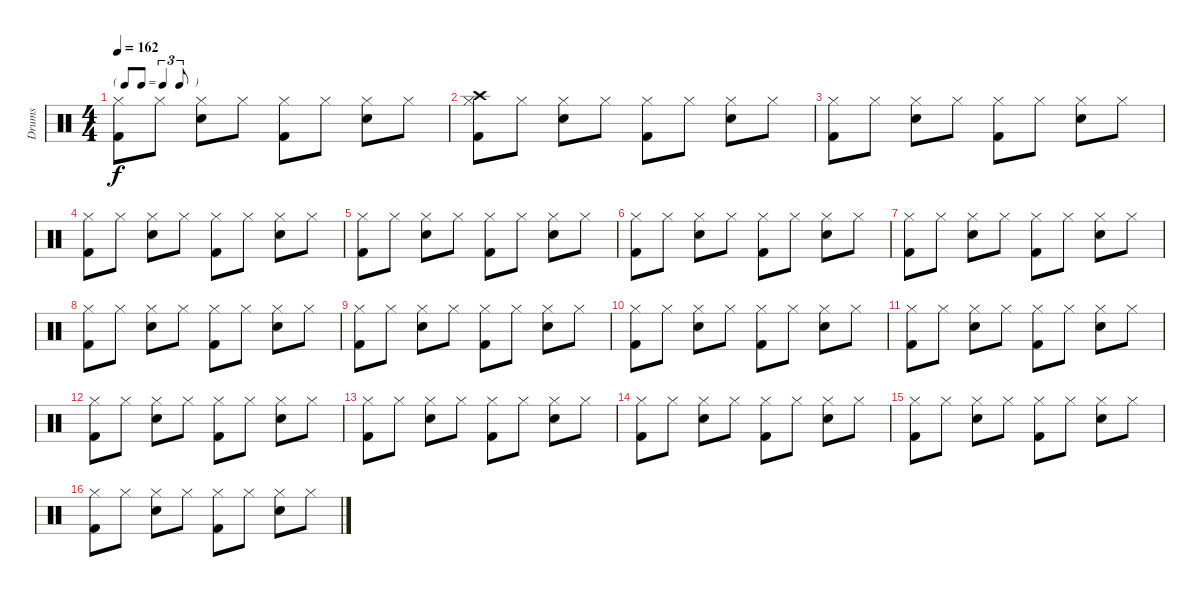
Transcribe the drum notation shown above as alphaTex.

\track ("Drums" "Drums") {instrument percussion}
\staff {score}
\articulation defaults
\ts (4 4)
\tf triplet8th
\tempo 162
\clef neutral
\ks c
("Hi-Hat (closed)" "Kick (hit) 2").8{dy f} "Hi-Hat (closed)".8 ("Hi-Hat (closed)" "Snare (hit) 2").8 "Hi-Hat (closed)".8 ("Hi-Hat (closed)" "Kick (hit) 2").8 "Hi-Hat (closed)".8 ("Hi-Hat (closed)" "Snare (hit) 2").8 "Hi-Hat (closed)".8 |
("Hi-Hat (closed)" "Kick (hit) 2" "Crash high (hit)").8 "Hi-Hat (closed)".8 ("Hi-Hat (closed)" "Snare (hit) 2").8 "Hi-Hat (closed)".8 ("Hi-Hat (closed)" "Kick (hit) 2").8 "Hi-Hat (closed)".8 ("Hi-Hat (closed)" "Snare (hit) 2").8 "Hi-Hat (closed)".8 |
("Hi-Hat (closed)" "Kick (hit) 2").8 "Hi-Hat (closed)".8 ("Hi-Hat (closed)" "Snare (hit) 2").8 "Hi-Hat (closed)".8 ("Hi-Hat (closed)" "Kick (hit) 2").8 "Hi-Hat (closed)".8 ("Hi-Hat (closed)" "Snare (hit) 2").8 "Hi-Hat (closed)".8 |
("Hi-Hat (closed)" "Kick (hit) 2").8 "Hi-Hat (closed)".8 ("Hi-Hat (closed)" "Snare (hit) 2").8 "Hi-Hat (closed)".8 ("Hi-Hat (closed)" "Kick (hit) 2").8 "Hi-Hat (closed)".8 ("Hi-Hat (closed)" "Snare (hit) 2").8 "Hi-Hat (closed)".8 |
("Hi-Hat (closed)" "Kick (hit) 2").8 "Hi-Hat (closed)".8 ("Hi-Hat (closed)" "Snare (hit) 2").8 "Hi-Hat (closed)".8 ("Hi-Hat (closed)" "Kick (hit) 2").8 "Hi-Hat (closed)".8 ("Hi-Hat (closed)" "Snare (hit) 2").8 "Hi-Hat (closed)".8 |
("Hi-Hat (closed)" "Kick (hit) 2").8 "Hi-Hat (closed)".8 ("Hi-Hat (closed)" "Snare (hit) 2").8 "Hi-Hat (closed)".8 ("Hi-Hat (closed)" "Kick (hit) 2").8 "Hi-Hat (closed)".8 ("Hi-Hat (closed)" "Snare (hit) 2").8 "Hi-Hat (closed)".8 |
("Hi-Hat (closed)" "Kick (hit) 2").8 "Hi-Hat (closed)".8 ("Hi-Hat (closed)" "Snare (hit) 2").8 "Hi-Hat (closed)".8 ("Hi-Hat (closed)" "Kick (hit) 2").8 "Hi-Hat (closed)".8 ("Hi-Hat (closed)" "Snare (hit) 2").8 "Hi-Hat (closed)".8 |
("Hi-Hat (closed)" "Kick (hit) 2").8 "Hi-Hat (closed)".8 ("Hi-Hat (closed)" "Snare (hit) 2").8 "Hi-Hat (closed)".8 ("Hi-Hat (closed)" "Kick (hit) 2").8 "Hi-Hat (closed)".8 ("Hi-Hat (closed)" "Snare (hit) 2").8 "Hi-Hat (closed)".8 |
("Hi-Hat (closed)" "Kick (hit) 2").8 "Hi-Hat (closed)".8 ("Hi-Hat (closed)" "Snare (hit) 2").8 "Hi-Hat (closed)".8 ("Hi-Hat (closed)" "Kick (hit) 2").8 "Hi-Hat (closed)".8 ("Hi-Hat (closed)" "Snare (hit) 2").8 "Hi-Hat (closed)".8 |
("Hi-Hat (closed)" "Kick (hit) 2").8 "Hi-Hat (closed)".8 ("Hi-Hat (closed)" "Snare (hit) 2").8 "Hi-Hat (closed)".8 ("Hi-Hat (closed)" "Kick (hit) 2").8 "Hi-Hat (closed)".8 ("Hi-Hat (closed)" "Snare (hit) 2").8 "Hi-Hat (closed)".8 |
("Hi-Hat (closed)" "Kick (hit) 2").8 "Hi-Hat (closed)".8 ("Hi-Hat (closed)" "Snare (hit) 2").8 "Hi-Hat (closed)".8 ("Hi-Hat (closed)" "Kick (hit) 2").8 "Hi-Hat (closed)".8 ("Hi-Hat (closed)" "Snare (hit) 2").8 "Hi-Hat (closed)".8 |
("Hi-Hat (closed)" "Kick (hit) 2").8 "Hi-Hat (closed)".8 ("Hi-Hat (closed)" "Snare (hit) 2").8 "Hi-Hat (closed)".8 ("Hi-Hat (closed)" "Kick (hit) 2").8 "Hi-Hat (closed)".8 ("Hi-Hat (closed)" "Snare (hit) 2").8 "Hi-Hat (closed)".8 |
("Hi-Hat (closed)" "Kick (hit) 2").8 "Hi-Hat (closed)".8 ("Hi-Hat (closed)" "Snare (hit) 2").8 "Hi-Hat (closed)".8 ("Hi-Hat (closed)" "Kick (hit) 2").8 "Hi-Hat (closed)".8 ("Hi-Hat (closed)" "Snare (hit) 2").8 "Hi-Hat (closed)".8 |
("Hi-Hat (closed)" "Kick (hit) 2").8 "Hi-Hat (closed)".8 ("Hi-Hat (closed)" "Snare (hit) 2").8 "Hi-Hat (closed)".8 ("Hi-Hat (closed)" "Kick (hit) 2").8 "Hi-Hat (closed)".8 ("Hi-Hat (closed)" "Snare (hit) 2").8 "Hi-Hat (closed)".8 |
("Hi-Hat (closed)" "Kick (hit) 2").8 "Hi-Hat (closed)".8 ("Hi-Hat (closed)" "Snare (hit) 2").8 "Hi-Hat (closed)".8 ("Hi-Hat (closed)" "Kick (hit) 2").8 "Hi-Hat (closed)".8 ("Hi-Hat (closed)" "Snare (hit) 2").8 "Hi-Hat (closed)".8 |
("Hi-Hat (closed)" "Kick (hit) 2").8 "Hi-Hat (closed)".8 ("Hi-Hat (closed)" "Snare (hit) 2").8 "Hi-Hat (closed)".8 ("Hi-Hat (closed)" "Kick (hit) 2").8 "Hi-Hat (closed)".8 ("Hi-Hat (closed)" "Snare (hit) 2").8 "Hi-Hat (closed)".8
